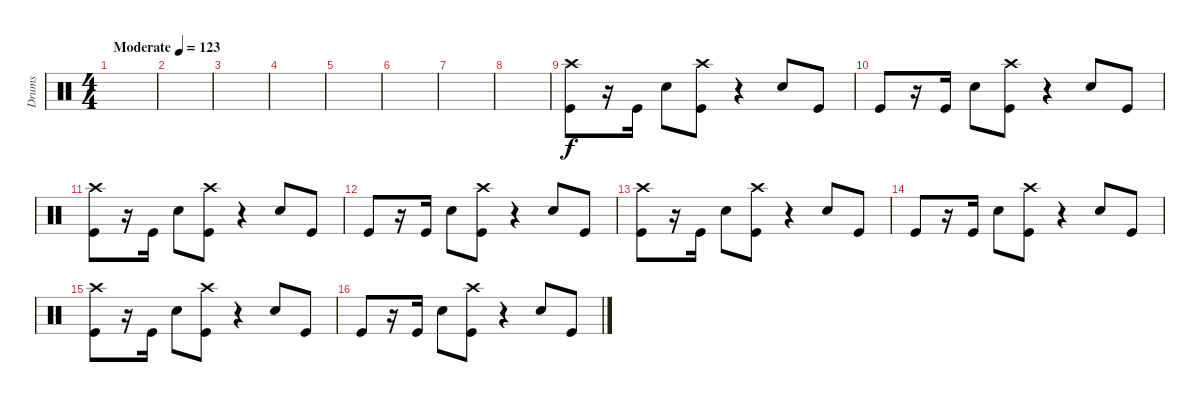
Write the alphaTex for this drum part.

\track ("Drums" "Drums") {instrument percussion}
\staff {score}
\articulation defaults
\ts (4 4)
\tempo (123 "Moderate")
\clef neutral
\ks c
|
|
|
|
|
|
|
|
("Crash high (hit)" "Kick (hit)").8{volume 8} r.16 "Kick (hit)".16 "Electric Snare (hit)".8 ("Crash high (hit)" "Kick (hit)").8 r.4 "Electric Snare (hit)".8 "Kick (hit)".8 |
"Kick (hit)".8 r.16 "Kick (hit)".16 "Electric Snare (hit)".8 ("Crash high (hit)" "Kick (hit)").8 r.4 "Electric Snare (hit)".8 "Kick (hit)".8 |
("Crash high (hit)" "Kick (hit)").8 r.16 "Kick (hit)".16 "Electric Snare (hit)".8 ("Crash high (hit)" "Kick (hit)").8 r.4 "Electric Snare (hit)".8 "Kick (hit)".8 |
"Kick (hit)".8 r.16 "Kick (hit)".16 "Electric Snare (hit)".8 ("Crash high (hit)" "Kick (hit)").8 r.4 "Electric Snare (hit)".8 "Kick (hit)".8 |
("Crash high (hit)" "Kick (hit)").8 r.16 "Kick (hit)".16 "Electric Snare (hit)".8 ("Crash high (hit)" "Kick (hit)").8 r.4 "Electric Snare (hit)".8 "Kick (hit)".8 |
"Kick (hit)".8 r.16 "Kick (hit)".16 "Electric Snare (hit)".8 ("Crash high (hit)" "Kick (hit)").8 r.4 "Electric Snare (hit)".8 "Kick (hit)".8 |
("Crash high (hit)" "Kick (hit)").8 r.16 "Kick (hit)".16 "Electric Snare (hit)".8 ("Crash high (hit)" "Kick (hit)").8 r.4 "Electric Snare (hit)".8 "Kick (hit)".8 |
"Kick (hit)".8 r.16 "Kick (hit)".16 "Electric Snare (hit)".8 ("Crash high (hit)" "Kick (hit)").8 r.4 "Electric Snare (hit)".8 "Kick (hit)".8
